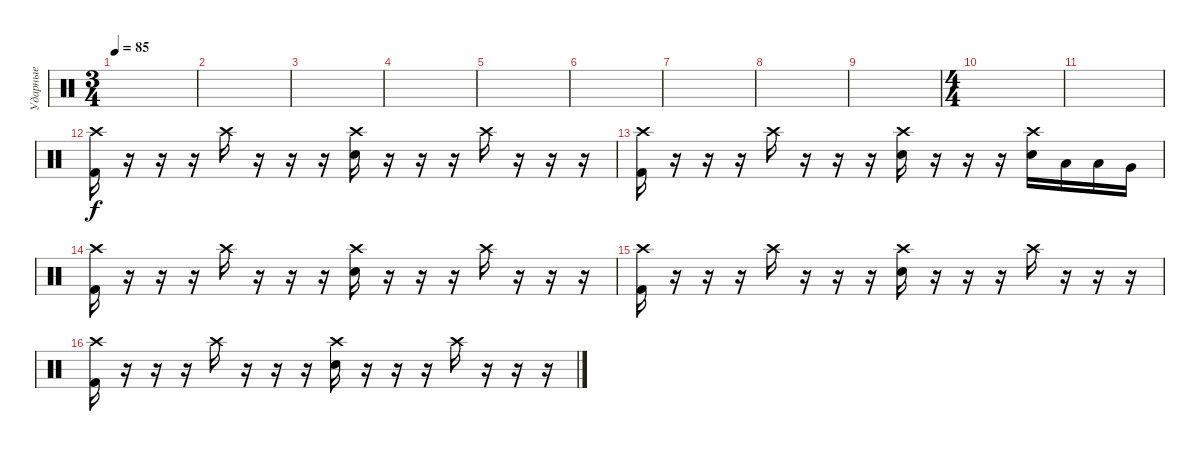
\track ("Ударные" "Ударные") {instrument percussion}
\staff {score}
\articulation defaults
\ts (3 4)
\tempo 85
\clef neutral
\ks c
|
|
|
|
|
|
|
|
|
\ts (4 4)
|
|
("Crash high (hit)" "Kick (hit) 2").16 r.16 r.16 r.16 "Crash high (hit)".16 r.16 r.16 r.16 ("Crash high (hit)" "Electric Snare (hit)").16 r.16 r.16 r.16 "Crash high (hit)".16 r.16 r.16 r.16 |
("Crash high (hit)" "Kick (hit) 2").16 r.16 r.16 r.16 "Crash high (hit)".16 r.16 r.16 r.16 ("Crash high (hit)" "Electric Snare (hit)").16 r.16 r.16 r.16 ("Crash high (hit)" "Electric Snare (hit)").16 "Low Tom (hit)".16 "Low Tom (hit)".16 "Very Low Tom (hit)".16 |
("Crash high (hit)" "Kick (hit) 2").16 r.16 r.16 r.16 "Crash high (hit)".16 r.16 r.16 r.16 ("Crash high (hit)" "Electric Snare (hit)").16 r.16 r.16 r.16 "Crash high (hit)".16 r.16 r.16 r.16 |
("Crash high (hit)" "Kick (hit) 2").16 r.16 r.16 r.16 "Crash high (hit)".16 r.16 r.16 r.16 ("Crash high (hit)" "Electric Snare (hit)").16 r.16 r.16 r.16 "Crash high (hit)".16 r.16 r.16 r.16 |
("Crash high (hit)" "Kick (hit) 2").16 r.16 r.16 r.16 "Crash high (hit)".16 r.16 r.16 r.16 ("Crash high (hit)" "Electric Snare (hit)").16 r.16 r.16 r.16 "Crash high (hit)".16 r.16 r.16 r.16
